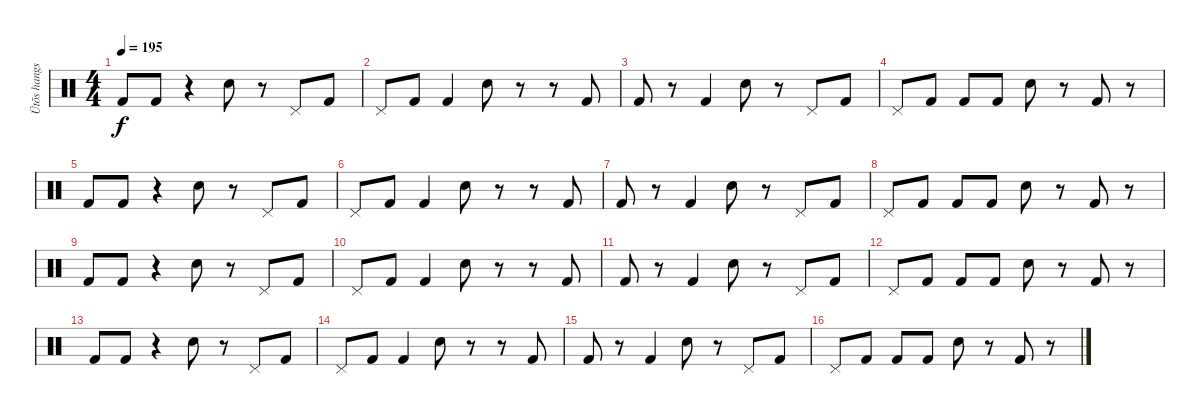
\track ("Ütõs hangszer" "Ütõs hangs") {instrument percussion}
\staff {score}
\articulation defaults
\ts (4 4)
\tempo 195
\clef neutral
\ks c "Kick (hit) 2".8{dy f} "Kick (hit) 2".8
r.4 "Electric Snare (hit)".8 r.8 "Pedal Hi-Hat (hit)".8 "Kick (hit) 2".8 |
"Pedal Hi-Hat (hit)".8 "Kick (hit) 2".8 "Kick (hit) 2".4 "Electric Snare (hit)".8 r.8 r.8 "Kick (hit) 2".8 |
"Kick (hit) 2".8 r.8 "Kick (hit) 2".4 "Electric Snare (hit)".8 r.8 "Pedal Hi-Hat (hit)".8 "Kick (hit) 2".8 |
"Pedal Hi-Hat (hit)".8 "Kick (hit) 2".8 "Kick (hit) 2".8 "Kick (hit) 2".8 "Electric Snare (hit)".8 r.8 "Kick (hit) 2".8 r.8 |
"Kick (hit) 2".8 "Kick (hit) 2".8 r.4 "Electric Snare (hit)".8 r.8 "Pedal Hi-Hat (hit)".8 "Kick (hit) 2".8 |
"Pedal Hi-Hat (hit)".8 "Kick (hit) 2".8 "Kick (hit) 2".4 "Electric Snare (hit)".8 r.8 r.8 "Kick (hit) 2".8 |
"Kick (hit) 2".8 r.8 "Kick (hit) 2".4 "Electric Snare (hit)".8 r.8 "Pedal Hi-Hat (hit)".8 "Kick (hit) 2".8 |
"Pedal Hi-Hat (hit)".8 "Kick (hit) 2".8 "Kick (hit) 2".8 "Kick (hit) 2".8 "Electric Snare (hit)".8 r.8 "Kick (hit) 2".8 r.8 |
"Kick (hit) 2".8 "Kick (hit) 2".8 r.4 "Electric Snare (hit)".8 r.8 "Pedal Hi-Hat (hit)".8 "Kick (hit) 2".8 |
"Pedal Hi-Hat (hit)".8 "Kick (hit) 2".8 "Kick (hit) 2".4 "Electric Snare (hit)".8 r.8 r.8 "Kick (hit) 2".8 |
"Kick (hit) 2".8 r.8 "Kick (hit) 2".4 "Electric Snare (hit)".8 r.8 "Pedal Hi-Hat (hit)".8 "Kick (hit) 2".8 |
"Pedal Hi-Hat (hit)".8 "Kick (hit) 2".8 "Kick (hit) 2".8 "Kick (hit) 2".8 "Electric Snare (hit)".8 r.8 "Kick (hit) 2".8 r.8 |
"Kick (hit) 2".8 "Kick (hit) 2".8 r.4 "Electric Snare (hit)".8 r.8 "Pedal Hi-Hat (hit)".8 "Kick (hit) 2".8 |
"Pedal Hi-Hat (hit)".8 "Kick (hit) 2".8 "Kick (hit) 2".4 "Electric Snare (hit)".8 r.8 r.8 "Kick (hit) 2".8 |
"Kick (hit) 2".8 r.8 "Kick (hit) 2".4 "Electric Snare (hit)".8 r.8 "Pedal Hi-Hat (hit)".8 "Kick (hit) 2".8 |
"Pedal Hi-Hat (hit)".8 "Kick (hit) 2".8 "Kick (hit) 2".8 "Kick (hit) 2".8 "Electric Snare (hit)".8 r.8 "Kick (hit) 2".8 r.8
